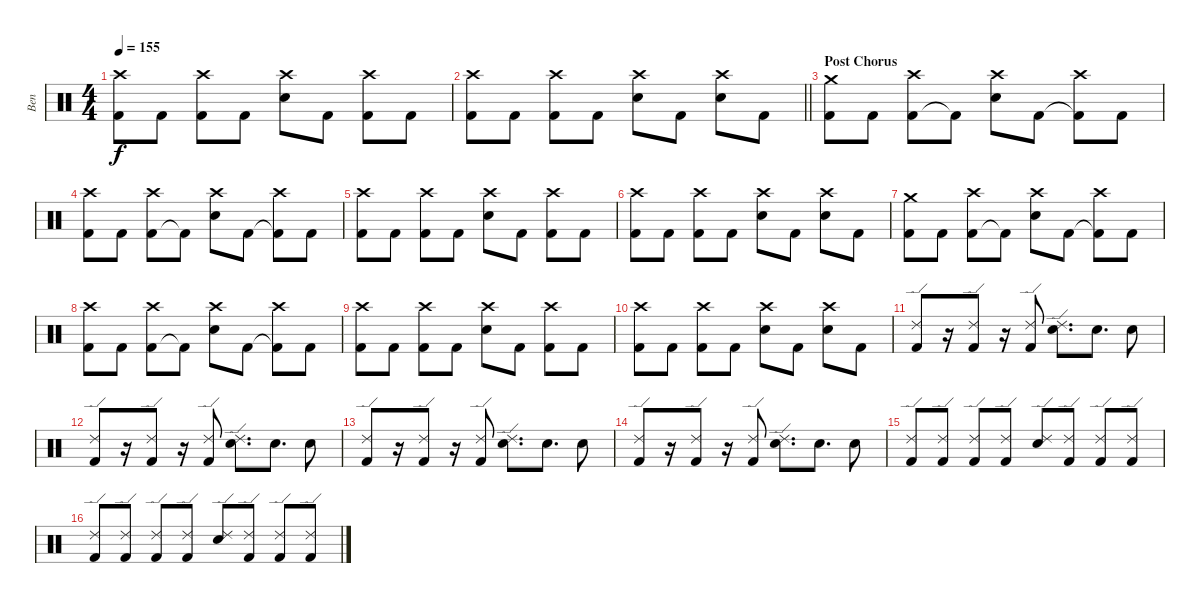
\track ("Ben" "Ben") {instrument percussion}
\staff {score}
\articulation defaults
\ts (4 4)
\tempo 155
\clef neutral
\ks c
("Kick (hit) 2" "Crash high (hit)").8{dy f} "Kick (hit) 2".8 ("Kick (hit) 2" "Crash high (hit)").8 "Kick (hit) 2".8 ("Electric Snare (hit)" "Crash high (hit)").8 "Kick (hit) 2".8 ("Kick (hit) 2" "Crash high (hit)").8 "Kick (hit) 2".8 |
\barLineRight lightlight
("Kick (hit) 2" "Crash high (hit)").8 "Kick (hit) 2".8 ("Kick (hit) 2" "Crash high (hit)").8 "Kick (hit) 2".8 ("Electric Snare (hit)" "Crash high (hit)").8 "Kick (hit) 2".8 ("Electric Snare (hit)" "Crash high (hit)").8 "Kick (hit) 2".8 |
\section ("" "Post Chorus")
("Kick (hit) 2" "Crash medium (hit)").8 "Kick (hit) 2".8 ("Kick (hit) 2" "Crash high (hit)").8 "Kick (hit) 2"{t}.8 ("Electric Snare (hit)" "Crash high (hit)").8 "Kick (hit) 2".8 ("Kick (hit) 2"{t} "Crash high (hit)").8 "Kick (hit) 2".8 |
("Kick (hit) 2" "Crash high (hit)").8 "Kick (hit) 2".8 ("Kick (hit) 2" "Crash high (hit)").8 "Kick (hit) 2"{t}.8 ("Electric Snare (hit)" "Crash high (hit)").8 "Kick (hit) 2".8 ("Kick (hit) 2"{t} "Crash high (hit)").8 "Kick (hit) 2".8 |
("Kick (hit) 2" "Crash high (hit)").8 "Kick (hit) 2".8 ("Kick (hit) 2" "Crash high (hit)").8 "Kick (hit) 2".8 ("Electric Snare (hit)" "Crash high (hit)").8 "Kick (hit) 2".8 ("Kick (hit) 2" "Crash high (hit)").8 "Kick (hit) 2".8 |
("Kick (hit) 2" "Crash high (hit)").8 "Kick (hit) 2".8 ("Kick (hit) 2" "Crash high (hit)").8 "Kick (hit) 2".8 ("Electric Snare (hit)" "Crash high (hit)").8 "Kick (hit) 2".8 ("Electric Snare (hit)" "Crash high (hit)").8 "Kick (hit) 2".8 |
("Kick (hit) 2" "Crash medium (hit)").8 "Kick (hit) 2".8 ("Kick (hit) 2" "Crash high (hit)").8 "Kick (hit) 2"{t}.8 ("Electric Snare (hit)" "Crash high (hit)").8 "Kick (hit) 2".8 ("Kick (hit) 2"{t} "Crash high (hit)").8 "Kick (hit) 2".8 |
("Kick (hit) 2" "Crash high (hit)").8 "Kick (hit) 2".8 ("Kick (hit) 2" "Crash high (hit)").8 "Kick (hit) 2"{t}.8 ("Electric Snare (hit)" "Crash high (hit)").8 "Kick (hit) 2".8 ("Kick (hit) 2"{t} "Crash high (hit)").8 "Kick (hit) 2".8 |
("Kick (hit) 2" "Crash high (hit)").8 "Kick (hit) 2".8 ("Kick (hit) 2" "Crash high (hit)").8 "Kick (hit) 2".8 ("Electric Snare (hit)" "Crash high (hit)").8 "Kick (hit) 2".8 ("Kick (hit) 2" "Crash high (hit)").8 "Kick (hit) 2".8 |
("Kick (hit) 2" "Crash high (hit)").8 "Kick (hit) 2".8 ("Kick (hit) 2" "Crash high (hit)").8 "Kick (hit) 2".8 ("Electric Snare (hit)" "Crash high (hit)").8 "Kick (hit) 2".8 ("Electric Snare (hit)" "Crash high (hit)").8 "Kick (hit) 2".8 |
("Kick (hit) 2" "Ride (edge) 2").8 r.16 ("Kick (hit) 2" "Ride (edge) 2").8 r.16 ("Kick (hit) 2" "Ride (edge) 2").8 ("Electric Snare (hit)" "Ride (edge) 2").8{d} "Electric Snare (hit)".8{d} "Electric Snare (hit)".8 |
("Kick (hit) 2" "Ride (edge) 2").8 r.16 ("Kick (hit) 2" "Ride (edge) 2").8 r.16 ("Kick (hit) 2" "Ride (edge) 2").8 ("Electric Snare (hit)" "Ride (edge) 2").8{d} "Electric Snare (hit)".8{d} "Electric Snare (hit)".8 |
("Kick (hit) 2" "Ride (edge) 2").8 r.16 ("Kick (hit) 2" "Ride (edge) 2").8 r.16 ("Kick (hit) 2" "Ride (edge) 2").8 ("Electric Snare (hit)" "Ride (edge) 2").8{d} "Electric Snare (hit)".8{d} "Electric Snare (hit)".8 |
("Kick (hit) 2" "Ride (edge) 2").8 r.16 ("Kick (hit) 2" "Ride (edge) 2").8 r.16 ("Kick (hit) 2" "Ride (edge) 2").8 ("Electric Snare (hit)" "Ride (edge) 2").8{d} "Electric Snare (hit)".8{d} "Electric Snare (hit)".8 |
("Kick (hit) 2" "Ride (edge) 2").8 ("Kick (hit) 2" "Ride (edge) 2").8 ("Kick (hit) 2" "Ride (edge) 2").8 ("Kick (hit) 2" "Ride (edge) 2").8 ("Electric Snare (hit)" "Ride (edge) 2").8 ("Kick (hit) 2" "Ride (edge) 2").8 ("Kick (hit) 2" "Ride (edge) 2").8 ("Kick (hit) 2" "Ride (edge) 2").8 |
("Kick (hit) 2" "Ride (edge) 2").8 ("Kick (hit) 2" "Ride (edge) 2").8 ("Kick (hit) 2" "Ride (edge) 2").8 ("Kick (hit) 2" "Ride (edge) 2").8 ("Electric Snare (hit)" "Ride (edge) 2").8 ("Kick (hit) 2" "Ride (edge) 2").8 ("Kick (hit) 2" "Ride (edge) 2").8 ("Kick (hit) 2" "Ride (edge) 2").8
